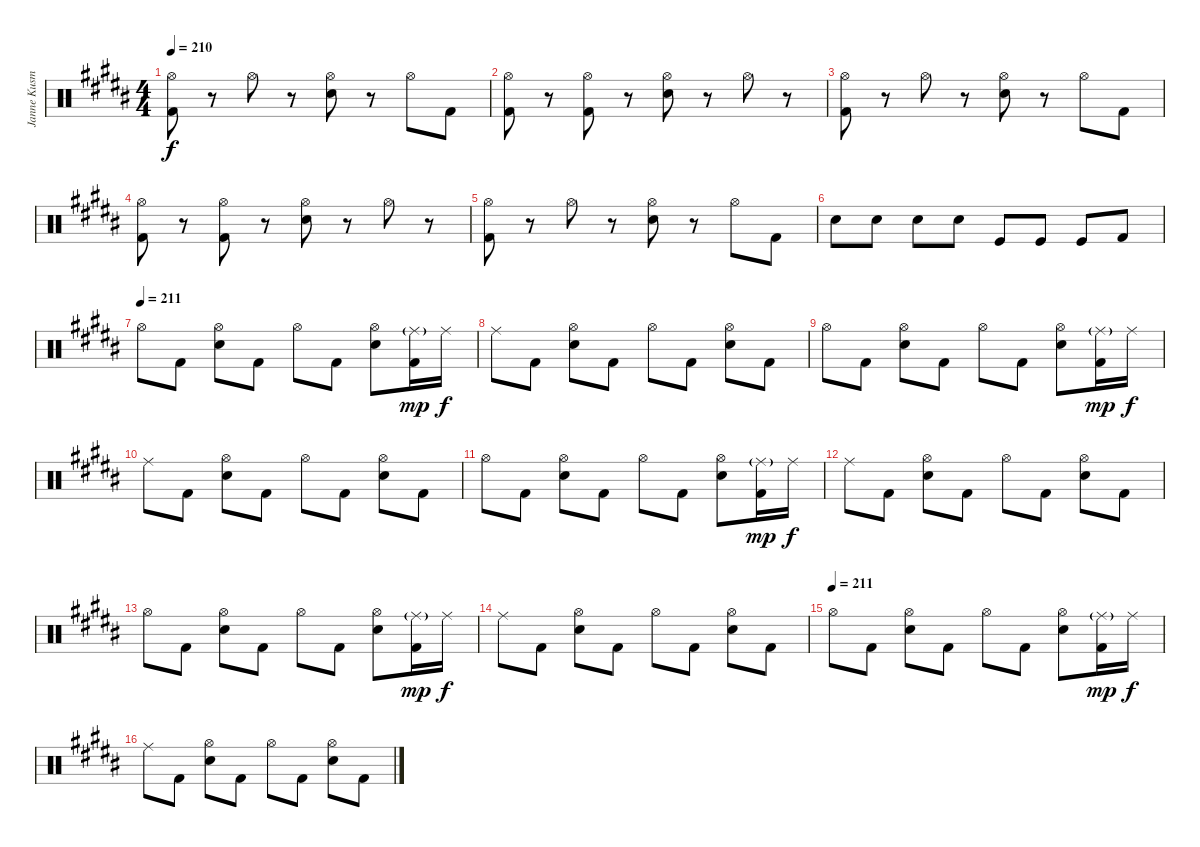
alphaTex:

\track ("Janne Kusmin" "Janne Kusm") {instrument percussion}
\staff {score}
\articulation defaults
\ts (4 4)
\tempo 210
\clef neutral
\ks g#minor
("Kick (hit) 2" "Hi-Hat (open)").8{dy f} r.8 "Hi-Hat (open)".8 r.8 ("Electric Snare (hit)" "Hi-Hat (open)").8 r.8 "Hi-Hat (open)".8 "Kick (hit) 2".8 |
("Kick (hit) 2" "Hi-Hat (open)").8 r.8 ("Kick (hit) 2" "Hi-Hat (open)").8 r.8 ("Electric Snare (hit)" "Hi-Hat (open)").8 r.8 "Hi-Hat (open)".8 r.8 |
("Kick (hit) 2" "Hi-Hat (open)").8 r.8 "Hi-Hat (open)".8 r.8 ("Electric Snare (hit)" "Hi-Hat (open)").8 r.8 "Hi-Hat (open)".8 "Kick (hit) 2".8 |
("Kick (hit) 2" "Hi-Hat (open)").8 r.8 ("Kick (hit) 2" "Hi-Hat (open)").8 r.8 ("Electric Snare (hit)" "Hi-Hat (open)").8 r.8 "Hi-Hat (open)".8 r.8 |
("Kick (hit) 2" "Hi-Hat (open)").8 r.8 "Hi-Hat (open)".8 r.8 ("Electric Snare (hit)" "Hi-Hat (open)").8 r.8 "Hi-Hat (open)".8 "Kick (hit) 2".8 |
"Electric Snare (hit)".8 "Electric Snare (hit)".8 "Electric Snare (hit)".8 "Electric Snare (hit)".8 "Kick (hit)".8 "Kick (hit)".8 "Kick (hit)".8 "Kick (hit) 2".8 |
\tempo (211)
"Hi-Hat (open)".8 "Kick (hit) 2".8 ("Hi-Hat (open)" "Electric Snare (hit)").8 "Kick (hit) 2".8 "Hi-Hat (open)".8 "Kick (hit) 2".8 ("Hi-Hat (open)" "Electric Snare (hit)").8 ("Ride (middle)"{g} "Kick (hit) 2").16{dy mp} "Ride (middle)".16{dy f} |
"Ride (middle)".8 "Kick (hit) 2".8 ("Hi-Hat (open)" "Electric Snare (hit)").8 "Kick (hit) 2".8 "Hi-Hat (open)".8 "Kick (hit) 2".8 ("Hi-Hat (open)" "Electric Snare (hit)").8 "Kick (hit) 2".8 |
"Hi-Hat (open)".8 "Kick (hit) 2".8 ("Hi-Hat (open)" "Electric Snare (hit)").8 "Kick (hit) 2".8 "Hi-Hat (open)".8 "Kick (hit) 2".8 ("Hi-Hat (open)" "Electric Snare (hit)").8 ("Ride (middle)"{g} "Kick (hit) 2").16{dy mp} "Ride (middle)".16{dy f} |
"Ride (middle)".8 "Kick (hit) 2".8 ("Hi-Hat (open)" "Electric Snare (hit)").8 "Kick (hit) 2".8 "Hi-Hat (open)".8 "Kick (hit) 2".8 ("Hi-Hat (open)" "Electric Snare (hit)").8 "Kick (hit) 2".8 |
"Hi-Hat (open)".8 "Kick (hit) 2".8 ("Hi-Hat (open)" "Electric Snare (hit)").8 "Kick (hit) 2".8 "Hi-Hat (open)".8 "Kick (hit) 2".8 ("Hi-Hat (open)" "Electric Snare (hit)").8 ("Ride (middle)"{g} "Kick (hit) 2").16{dy mp} "Ride (middle)".16{dy f} |
"Ride (middle)".8 "Kick (hit) 2".8 ("Hi-Hat (open)" "Electric Snare (hit)").8 "Kick (hit) 2".8 "Hi-Hat (open)".8 "Kick (hit) 2".8 ("Hi-Hat (open)" "Electric Snare (hit)").8 "Kick (hit) 2".8 |
"Hi-Hat (open)".8 "Kick (hit) 2".8 ("Hi-Hat (open)" "Electric Snare (hit)").8 "Kick (hit) 2".8 "Hi-Hat (open)".8 "Kick (hit) 2".8 ("Hi-Hat (open)" "Electric Snare (hit)").8 ("Ride (middle)"{g} "Kick (hit) 2").16{dy mp} "Ride (middle)".16{dy f} |
"Ride (middle)".8 "Kick (hit) 2".8 ("Hi-Hat (open)" "Electric Snare (hit)").8 "Kick (hit) 2".8 "Hi-Hat (open)".8 "Kick (hit) 2".8 ("Hi-Hat (open)" "Electric Snare (hit)").8 "Kick (hit) 2".8 |
\tempo (211)
"Hi-Hat (open)".8 "Kick (hit) 2".8 ("Hi-Hat (open)" "Electric Snare (hit)").8 "Kick (hit) 2".8 "Hi-Hat (open)".8 "Kick (hit) 2".8 ("Hi-Hat (open)" "Electric Snare (hit)").8 ("Ride (middle)"{g} "Kick (hit) 2").16{dy mp} "Ride (middle)".16{dy f} |
"Ride (middle)".8 "Kick (hit) 2".8 ("Hi-Hat (open)" "Electric Snare (hit)").8 "Kick (hit) 2".8 "Hi-Hat (open)".8 "Kick (hit) 2".8 ("Hi-Hat (open)" "Electric Snare (hit)").8 "Kick (hit) 2".8
